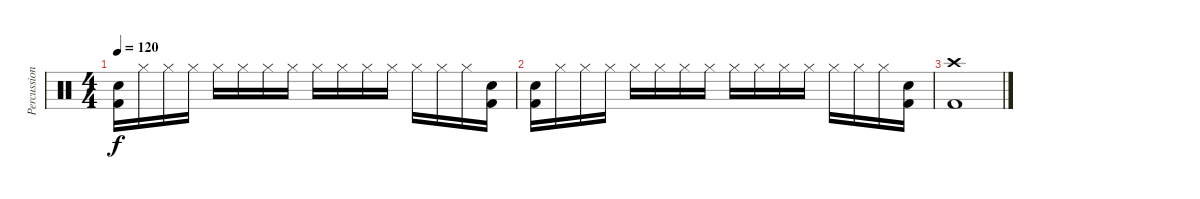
\track ("Percussion" "Percussion") {instrument percussion}
\staff {score}
\articulation defaults
\ts (4 4)
\tempo 120
\clef neutral
\ks c
("Kick (hit) 2" "Snare (hit) 2").16{dy f} "Hi-Hat (closed)".16 "Hi-Hat (closed)".16 "Hi-Hat (closed)".16 "Hi-Hat (closed)".16 "Hi-Hat (closed)".16 "Hi-Hat (closed)".16 "Hi-Hat (closed)".16 "Hi-Hat (closed)".16 "Hi-Hat (closed)".16 "Hi-Hat (closed)".16 "Hi-Hat (closed)".16 "Hi-Hat (closed)".16 "Hi-Hat (closed)".16 "Hi-Hat (closed)".16 ("Kick (hit) 2" "Snare (hit) 2").16 |
("Kick (hit) 2" "Snare (hit) 2").16 "Hi-Hat (closed)".16 "Hi-Hat (closed)".16 "Hi-Hat (closed)".16 "Hi-Hat (closed)".16 "Hi-Hat (closed)".16 "Hi-Hat (closed)".16 "Hi-Hat (closed)".16 "Hi-Hat (closed)".16 "Hi-Hat (closed)".16 "Hi-Hat (closed)".16 "Hi-Hat (closed)".16 "Hi-Hat (closed)".16 "Hi-Hat (closed)".16 "Hi-Hat (closed)".16 ("Kick (hit) 2" "Snare (hit) 2").16 |
("Crash high (hit)" "Kick (hit) 2").1
